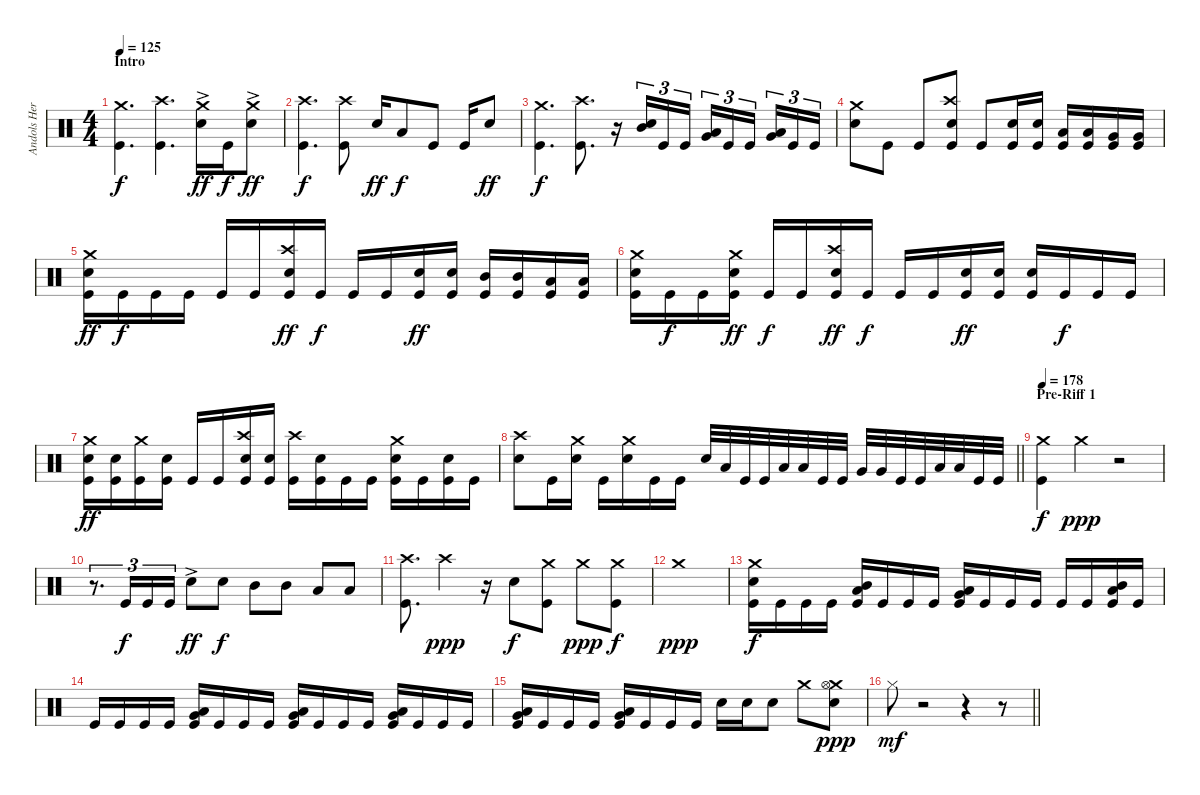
\track ("Andols Herrick" "Andols Her") {instrument percussion}
\staff {score}
\articulation defaults
\ts (4 4)
\section ("" "Intro")
\tempo 125
\clef neutral
\ks c
("Crash medium (hit)" "Kick (hit)").4{d dy f} ("Crash high (hit)" "Kick (hit)").4{d} ("Crash medium (hit)" "Electric Snare (hit)"{ac}).16{dy ff} "Kick (hit)".16{dy f} ("Crash medium (hit)" "Electric Snare (hit)"{ac}).8{dy ff} |
("Crash high (hit)" "Kick (hit)").4{d dy f} ("Crash high (hit)" "Kick (hit)").8 "Electric Snare (hit)".16{dy ff} "Low Tom (hit)".8{dy f} "Kick (hit)".8 "Kick (hit)".16 "Electric Snare (hit)".8{dy ff} |
("Crash medium (hit)" "Kick (hit)").4{d dy f} ("Crash high (hit)" "Kick (hit)").8{d} r.16 ("Mid Tom (hit)" "Electric Snare (hit)").16{tu (3 2)} "Kick (hit)".16{tu (3 2)} "Kick (hit)".16{tu (3 2)} ("Low Tom (hit)" "Very Low Tom (hit)").16{tu (3 2)} "Kick (hit)".16{tu (3 2)} "Kick (hit)".16{tu (3 2) beam splitsecondary} ("Low Floor Tom (hit)" "Very Low Tom (hit)").16{tu (3 2)} "Kick (hit)".16{tu (3 2)} "Kick (hit)".16{tu (3 2)} |
("Crash medium (hit)" "Electric Snare (hit)").8 "Kick (hit)".8 "Kick (hit)".8 ("Crash high (hit)" "Electric Snare (hit)" "Kick (hit)").8 "Kick (hit)".8 ("Electric Snare (hit)" "Kick (hit)").16 ("Electric Snare (hit)" "Kick (hit)").16 ("Low Tom (hit)" "Kick (hit)").16 ("Low Tom (hit)" "Kick (hit)").16 ("Very Low Tom (hit)" "Kick (hit)").16 ("Very Low Tom (hit)" "Kick (hit)").16 |
("Crash medium (hit)" "Electric Snare (hit)" "Kick (hit)").16{dy ff} "Kick (hit)".16{dy f} "Kick (hit)".16 "Kick (hit)".16 "Kick (hit)".16 "Kick (hit)".16 ("Crash high (hit)" "Electric Snare (hit)" "Kick (hit)").16{dy ff} "Kick (hit)".16{dy f} "Kick (hit)".16 "Kick (hit)".16 ("Electric Snare (hit)" "Kick (hit)").16{dy ff} ("Electric Snare (hit)" "Kick (hit)").16 ("Mid Tom (hit)" "Kick (hit)").16 ("Mid Tom (hit)" "Kick (hit)").16 ("Low Tom (hit)" "Kick (hit)").16 ("Low Tom (hit)" "Kick (hit)").16 |
("Crash medium (hit)" "Electric Snare (hit)" "Kick (hit)").16 "Kick (hit)".16{dy f} "Kick (hit)".16 ("Crash medium (hit)" "Electric Snare (hit)" "Kick (hit)").16{dy ff} "Kick (hit)".16{dy f} "Kick (hit)".16 ("Crash high (hit)" "Electric Snare (hit)" "Kick (hit)").16{dy ff} "Kick (hit)".16{dy f} "Kick (hit)".16 "Kick (hit)".16 ("Electric Snare (hit)" "Kick (hit)").16{dy ff} ("Electric Snare (hit)" "Kick (hit)").16 ("Electric Snare (hit)" "Kick (hit)").16 "Kick (hit)".16{dy f} "Kick (hit)".16 "Kick (hit)".16 |
("Crash medium (hit)" "Electric Snare (hit)" "Kick (hit)").16{dy ff} ("Electric Snare (hit)" "Kick (hit)").16 ("Crash medium (hit)" "Kick (hit)").16 ("Electric Snare (hit)" "Kick (hit)").16 "Kick (hit)".16 "Kick (hit)".16 ("Crash high (hit)" "Electric Snare (hit)" "Kick (hit)").16 ("Electric Snare (hit)" "Kick (hit)").16 ("Crash high (hit)" "Kick (hit)").16 ("Electric Snare (hit)" "Kick (hit)").16 "Kick (hit)".16 "Kick (hit)".16 ("Crash medium (hit)" "Electric Snare (hit)" "Kick (hit)").16 "Kick (hit)".16 ("Electric Snare (hit)" "Kick (hit)").16 "Kick (hit)".16 |
\barLineRight lightlight
("Crash high (hit)" "Electric Snare (hit)").8 "Kick (hit)".16 ("Crash medium (hit)" "Electric Snare (hit)").16 "Kick (hit)".16 ("Crash medium (hit)" "Electric Snare (hit)").16 "Kick (hit)".16 "Kick (hit)".16 "Electric Snare (hit)".32 "Low Tom (hit)".32 "Kick (hit)".32 "Kick (hit)".32 "Low Tom (hit)".32 "Low Tom (hit)".32 "Kick (hit)".32 "Kick (hit)".32 "Very Low Tom (hit)".32 "Very Low Tom (hit)".32 "Kick (hit)".32 "Kick (hit)".32 "Low Floor Tom (hit)".32 "Low Floor Tom (hit)".32 "Kick (hit)".32 "Kick (hit)".32 |
\section ("" "Pre-Riff 1")
\tempo 178
("Crash medium (hit)" "Kick (hit)").4{dy f} "Crash medium (hit)".4{dy ppp} r.2 |
r.8{d tu (3 2)} "Kick (hit)".16{tu (3 2) dy f} "Kick (hit)".16{tu (3 2)} "Kick (hit)".16{tu (3 2)} "Electric Snare (hit)"{ac}.8{dy ff} "Electric Snare (hit)".8{dy f} "Mid Tom (hit)".8 "Mid Tom (hit)".8 "Low Tom (hit)".8 "Low Tom (hit)".8 |
("Crash high (hit)" "Kick (hit)").8{d} "Crash high (hit)".4{dy ppp} r.16 "Electric Snare (hit)".8{dy f} ("Crash medium (hit)" "Kick (hit)").8 "Crash medium (hit)".8{dy ppp} ("Crash medium (hit)" "Kick (hit)").8{dy f} |
"Crash medium (hit)".1{dy ppp} |
("Crash medium (hit)" "Electric Snare (hit)" "Kick (hit)").16{dy f} "Kick (hit)".16 "Kick (hit)".16 "Kick (hit)".16 ("Mid Tom (hit)" "Low Tom (hit)" "Kick (hit)").16 "Kick (hit)".16 "Kick (hit)".16 "Kick (hit)".16 ("Low Tom (hit)" "Very Low Tom (hit)" "Kick (hit)").16 "Kick (hit)".16 "Kick (hit)".16 "Kick (hit)".16 "Kick (hit)".16 "Kick (hit)".16 ("Mid Tom (hit)" "Low Tom (hit)" "Kick (hit)").16 "Kick (hit)".16 |
"Kick (hit)".16 "Kick (hit)".16 "Kick (hit)".16 "Kick (hit)".16 ("Low Tom (hit)" "Very Low Tom (hit)" "Kick (hit)").16 "Kick (hit)".16 "Kick (hit)".16 "Kick (hit)".16 ("Low Tom (hit)" "Very Low Tom (hit)" "Kick (hit)").16 "Kick (hit)".16 "Kick (hit)".16 "Kick (hit)".16 ("Very Low Tom (hit)" "Low Floor Tom (hit)" "Kick (hit)").16 "Kick (hit)".16 "Kick (hit)".16 "Kick (hit)".16 |
("Low Tom (hit)" "Very Low Tom (hit)" "Kick (hit)").16 "Kick (hit)".16 "Kick (hit)".16 "Kick (hit)".16 ("Very Low Tom (hit)" "Low Floor Tom (hit)" "Kick (hit)").16 "Kick (hit)".16 "Kick (hit)".16 "Kick (hit)".16 "Electric Snare (hit)".16 "Electric Snare (hit)".16 "Electric Snare (hit)".8 "Crash medium (hit)".8 ("Crash medium (hit)" "Hi-Hat (open)" "Electric Snare (hit)").8{dy ppp} |
\barLineRight lightlight "Hi-Hat (closed)".8{dy mf}
r.2 r.4 r.8
